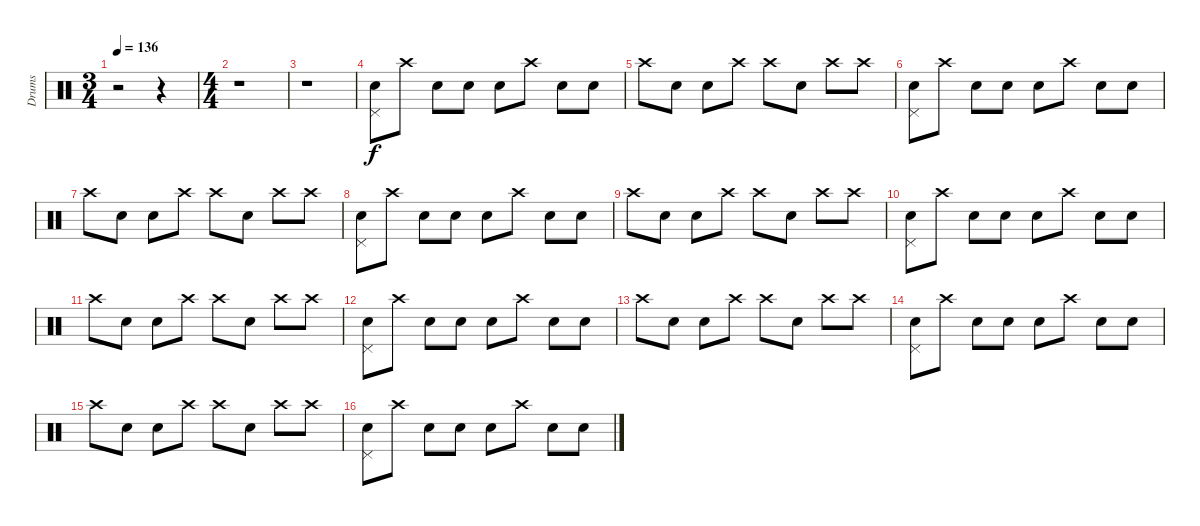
\track ("Drums" "Drums") {instrument percussion}
\staff {score}
\articulation defaults
\ts (3 4)
\tempo 136
\clef neutral
\ks c
r.2{dy f} r.4 |
\ts (4 4)
r.1 |
r.1 |
("Snare (hit) 2" "Pedal Hi-Hat (hit)").8 "Crash high (hit)".8 "Electric Snare (hit)".8 "Snare (hit) 2".8 "Snare (hit) 2".8 "Crash high (hit)".8 "Electric Snare (hit)".8 "Snare (hit) 2".8 |
"Crash high (hit)".8 "Electric Snare (hit)".8 "Snare (hit) 2".8 "Crash high (hit)".8 "Crash high (hit)".8 "Snare (hit) 2".8 "Crash high (hit)".8 "Crash high (hit)".8 |
("Snare (hit) 2" "Pedal Hi-Hat (hit)").8 "Crash high (hit)".8 "Electric Snare (hit)".8 "Snare (hit) 2".8 "Snare (hit) 2".8 "Crash high (hit)".8 "Electric Snare (hit)".8 "Snare (hit) 2".8 |
"Crash high (hit)".8 "Electric Snare (hit)".8 "Snare (hit) 2".8 "Crash high (hit)".8 "Crash high (hit)".8 "Snare (hit) 2".8 "Crash high (hit)".8 "Crash high (hit)".8 |
("Snare (hit) 2" "Pedal Hi-Hat (hit)").8 "Crash high (hit)".8 "Electric Snare (hit)".8 "Snare (hit) 2".8 "Snare (hit) 2".8 "Crash high (hit)".8 "Electric Snare (hit)".8 "Snare (hit) 2".8 |
"Crash high (hit)".8 "Electric Snare (hit)".8 "Snare (hit) 2".8 "Crash high (hit)".8 "Crash high (hit)".8 "Snare (hit) 2".8 "Crash high (hit)".8 "Crash high (hit)".8 |
("Snare (hit) 2" "Pedal Hi-Hat (hit)").8 "Crash high (hit)".8 "Electric Snare (hit)".8 "Snare (hit) 2".8 "Snare (hit) 2".8 "Crash high (hit)".8 "Electric Snare (hit)".8 "Snare (hit) 2".8 |
"Crash high (hit)".8 "Electric Snare (hit)".8 "Snare (hit) 2".8 "Crash high (hit)".8 "Crash high (hit)".8 "Snare (hit) 2".8 "Crash high (hit)".8 "Crash high (hit)".8 |
("Snare (hit) 2" "Pedal Hi-Hat (hit)").8 "Crash high (hit)".8 "Electric Snare (hit)".8 "Snare (hit) 2".8 "Snare (hit) 2".8 "Crash high (hit)".8 "Electric Snare (hit)".8 "Snare (hit) 2".8 |
"Crash high (hit)".8 "Electric Snare (hit)".8 "Snare (hit) 2".8 "Crash high (hit)".8 "Crash high (hit)".8 "Snare (hit) 2".8 "Crash high (hit)".8 "Crash high (hit)".8 |
("Snare (hit) 2" "Pedal Hi-Hat (hit)").8 "Crash high (hit)".8 "Electric Snare (hit)".8 "Snare (hit) 2".8 "Snare (hit) 2".8 "Crash high (hit)".8 "Electric Snare (hit)".8 "Snare (hit) 2".8 |
"Crash high (hit)".8 "Electric Snare (hit)".8 "Snare (hit) 2".8 "Crash high (hit)".8 "Crash high (hit)".8 "Snare (hit) 2".8 "Crash high (hit)".8 "Crash high (hit)".8 |
("Snare (hit) 2" "Pedal Hi-Hat (hit)").8 "Crash high (hit)".8 "Electric Snare (hit)".8 "Snare (hit) 2".8 "Snare (hit) 2".8 "Crash high (hit)".8 "Electric Snare (hit)".8 "Snare (hit) 2".8
